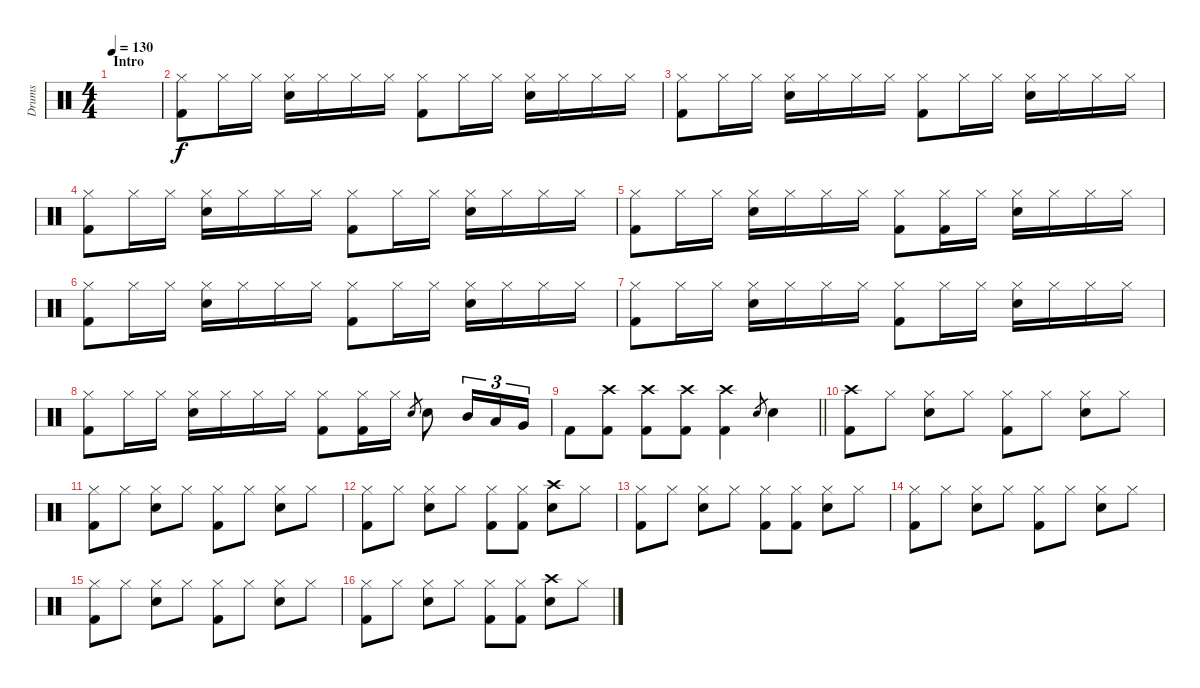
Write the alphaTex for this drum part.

\track ("Drums" "Drums") {instrument percussion}
\staff {score}
\articulation defaults
\ts (4 4)
\section ("" "Intro")
\tempo 130
\clef neutral
\ks c
|
("Hi-Hat (closed)" "Kick (hit) 2").8 "Hi-Hat (closed)".16 "Hi-Hat (closed)".16 ("Hi-Hat (closed)" "Snare (hit) 2").16 "Hi-Hat (closed)".16 "Hi-Hat (closed)".16 "Hi-Hat (closed)".16 ("Hi-Hat (closed)" "Kick (hit) 2").8 "Hi-Hat (closed)".16 "Hi-Hat (closed)".16 ("Hi-Hat (closed)" "Snare (hit) 2").16 "Hi-Hat (closed)".16 "Hi-Hat (closed)".16 "Hi-Hat (closed)".16 |
("Hi-Hat (closed)" "Kick (hit) 2").8 "Hi-Hat (closed)".16 "Hi-Hat (closed)".16 ("Hi-Hat (closed)" "Snare (hit) 2").16 "Hi-Hat (closed)".16 "Hi-Hat (closed)".16 "Hi-Hat (closed)".16 ("Hi-Hat (closed)" "Kick (hit) 2").8 "Hi-Hat (closed)".16 "Hi-Hat (closed)".16 ("Hi-Hat (closed)" "Snare (hit) 2").16 "Hi-Hat (closed)".16 "Hi-Hat (closed)".16 "Hi-Hat (closed)".16 |
("Hi-Hat (closed)" "Kick (hit) 2").8 "Hi-Hat (closed)".16 "Hi-Hat (closed)".16 ("Hi-Hat (closed)" "Snare (hit) 2").16 "Hi-Hat (closed)".16 "Hi-Hat (closed)".16 "Hi-Hat (closed)".16 ("Hi-Hat (closed)" "Kick (hit) 2").8 "Hi-Hat (closed)".16 "Hi-Hat (closed)".16 ("Hi-Hat (closed)" "Snare (hit) 2").16 "Hi-Hat (closed)".16 "Hi-Hat (closed)".16 "Hi-Hat (closed)".16 |
("Hi-Hat (closed)" "Kick (hit) 2").8 "Hi-Hat (closed)".16 "Hi-Hat (closed)".16 ("Hi-Hat (closed)" "Snare (hit) 2").16 "Hi-Hat (closed)".16 "Hi-Hat (closed)".16 "Hi-Hat (closed)".16 ("Hi-Hat (closed)" "Kick (hit) 2").8 ("Hi-Hat (closed)" "Kick (hit) 2").16 "Hi-Hat (closed)".16 ("Hi-Hat (closed)" "Snare (hit) 2").16 "Hi-Hat (closed)".16 "Hi-Hat (closed)".16 "Hi-Hat (closed)".16 |
("Hi-Hat (closed)" "Kick (hit) 2").8 "Hi-Hat (closed)".16 "Hi-Hat (closed)".16 ("Hi-Hat (closed)" "Snare (hit) 2").16 "Hi-Hat (closed)".16 "Hi-Hat (closed)".16 "Hi-Hat (closed)".16 ("Hi-Hat (closed)" "Kick (hit) 2").8 "Hi-Hat (closed)".16 "Hi-Hat (closed)".16 ("Hi-Hat (closed)" "Snare (hit) 2").16 "Hi-Hat (closed)".16 "Hi-Hat (closed)".16 "Hi-Hat (closed)".16 |
("Hi-Hat (closed)" "Kick (hit) 2").8 "Hi-Hat (closed)".16 "Hi-Hat (closed)".16 ("Hi-Hat (closed)" "Snare (hit) 2").16 "Hi-Hat (closed)".16 "Hi-Hat (closed)".16 "Hi-Hat (closed)".16 ("Hi-Hat (closed)" "Kick (hit) 2").8 "Hi-Hat (closed)".16 "Hi-Hat (closed)".16 ("Hi-Hat (closed)" "Snare (hit) 2").16 "Hi-Hat (closed)".16 "Hi-Hat (closed)".16 "Hi-Hat (closed)".16 |
("Hi-Hat (closed)" "Kick (hit) 2").8 "Hi-Hat (closed)".16 "Hi-Hat (closed)".16 ("Hi-Hat (closed)" "Snare (hit) 2").16 "Hi-Hat (closed)".16 "Hi-Hat (closed)".16 "Hi-Hat (closed)".16 ("Hi-Hat (closed)" "Kick (hit) 2").8 ("Hi-Hat (closed)" "Kick (hit) 2").16 "Hi-Hat (closed)".16 "Snare (hit) 2".8{gr} "Snare (hit) 2".8 "Mid Tom (hit)".16{tu (3 2)} "Low Tom (hit)".16{tu (3 2)} "Very Low Tom (hit)".16{tu (3 2)} |
\barLineRight lightlight "Kick (hit) 2".8
("Crash high (hit)" "Kick (hit) 2").8 ("Crash high (hit)" "Kick (hit) 2").8 ("Crash high (hit)" "Kick (hit) 2").8 ("Crash high (hit)" "Kick (hit) 2").4 "Snare (hit) 2".8{gr} "Snare (hit) 2".4 |
("Crash high (hit)" "Kick (hit) 2").8 "Hi-Hat (closed)".8 ("Hi-Hat (closed)" "Snare (hit) 2").8 "Hi-Hat (closed)".8 ("Hi-Hat (closed)" "Kick (hit) 2").8 "Hi-Hat (closed)".8 ("Hi-Hat (closed)" "Snare (hit) 2").8 "Hi-Hat (closed)".8 |
("Hi-Hat (closed)" "Kick (hit) 2").8 "Hi-Hat (closed)".8 ("Hi-Hat (closed)" "Snare (hit) 2").8 "Hi-Hat (closed)".8 ("Hi-Hat (closed)" "Kick (hit) 2").8 "Hi-Hat (closed)".8 ("Hi-Hat (closed)" "Snare (hit) 2").8 "Hi-Hat (closed)".8 |
("Hi-Hat (closed)" "Kick (hit) 2").8 "Hi-Hat (closed)".8 ("Hi-Hat (closed)" "Snare (hit) 2").8 "Hi-Hat (closed)".8 ("Hi-Hat (closed)" "Kick (hit) 2").8 ("Hi-Hat (closed)" "Kick (hit) 2").8 ("Crash high (hit)" "Snare (hit) 2").8 "Hi-Hat (closed)".8 |
("Hi-Hat (closed)" "Kick (hit) 2").8 "Hi-Hat (closed)".8 ("Hi-Hat (closed)" "Snare (hit) 2").8 "Hi-Hat (closed)".8 ("Hi-Hat (closed)" "Kick (hit) 2").8 ("Hi-Hat (closed)" "Kick (hit) 2").8 ("Hi-Hat (closed)" "Snare (hit) 2").8 "Hi-Hat (closed)".8 |
("Hi-Hat (closed)" "Kick (hit) 2").8 "Hi-Hat (closed)".8 ("Hi-Hat (closed)" "Snare (hit) 2").8 "Hi-Hat (closed)".8 ("Hi-Hat (closed)" "Kick (hit) 2").8 "Hi-Hat (closed)".8 ("Hi-Hat (closed)" "Snare (hit) 2").8 "Hi-Hat (closed)".8 |
("Hi-Hat (closed)" "Kick (hit) 2").8 "Hi-Hat (closed)".8 ("Hi-Hat (closed)" "Snare (hit) 2").8 "Hi-Hat (closed)".8 ("Hi-Hat (closed)" "Kick (hit) 2").8 "Hi-Hat (closed)".8 ("Hi-Hat (closed)" "Snare (hit) 2").8 "Hi-Hat (closed)".8 |
("Hi-Hat (closed)" "Kick (hit) 2").8 "Hi-Hat (closed)".8 ("Hi-Hat (closed)" "Snare (hit) 2").8 "Hi-Hat (closed)".8 ("Hi-Hat (closed)" "Kick (hit) 2").8 ("Hi-Hat (closed)" "Kick (hit) 2").8 ("Crash high (hit)" "Snare (hit) 2").8 "Hi-Hat (closed)".8
